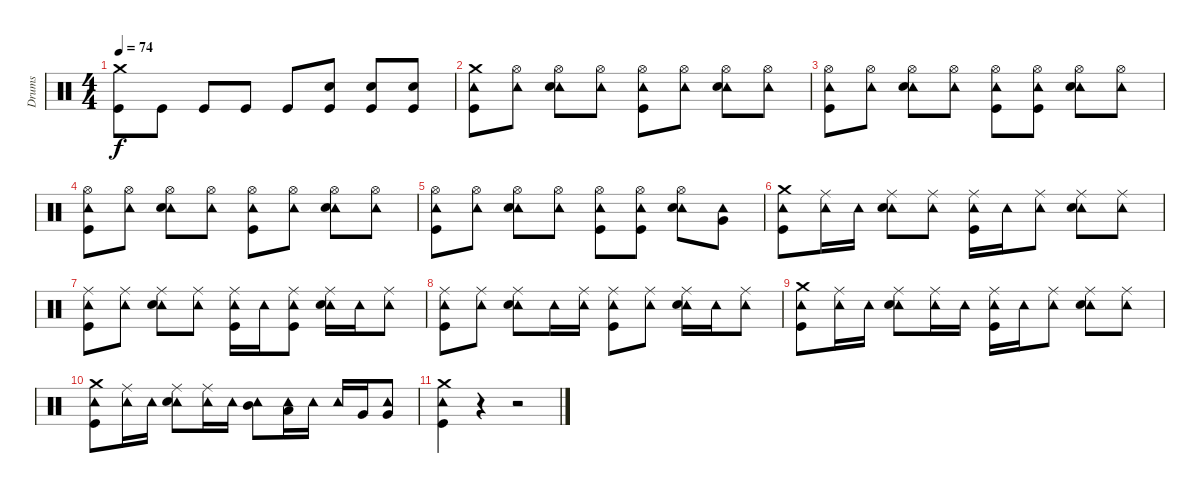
\track ("Drums" "Drums") {instrument percussion}
\staff {score}
\articulation defaults
\ts (4 4)
\tempo 74
\clef neutral
\ks c
("Crash medium (hit)" "Kick (hit)").8{dy f} "Kick (hit)".8 "Kick (hit)".8 "Kick (hit)".8 "Kick (hit)".8 ("Snare (hit) 2" "Kick (hit)").8 ("Snare (hit) 2" "Kick (hit)").8 ("Snare (hit) 2" "Kick (hit)").8 |
("Tambourine (hit)" "Crash medium (hit)" "Kick (hit)").8 ("Tambourine (hit)" "Hi-Hat (open)").8 ("Tambourine (hit)" "Hi-Hat (open)" "Snare (hit) 2").8 ("Tambourine (hit)" "Hi-Hat (open)").8 ("Tambourine (hit)" "Hi-Hat (open)" "Kick (hit)").8 ("Tambourine (hit)" "Hi-Hat (open)").8 ("Tambourine (hit)" "Hi-Hat (open)" "Snare (hit) 2").8 ("Tambourine (hit)" "Hi-Hat (open)").8 |
("Tambourine (hit)" "Hi-Hat (open)" "Kick (hit)").8 ("Tambourine (hit)" "Hi-Hat (open)").8 ("Tambourine (hit)" "Hi-Hat (open)" "Snare (hit) 2").8 ("Tambourine (hit)" "Hi-Hat (open)").8 ("Tambourine (hit)" "Hi-Hat (open)" "Kick (hit)").8 ("Tambourine (hit)" "Hi-Hat (open)" "Kick (hit)").8 ("Tambourine (hit)" "Hi-Hat (open)" "Snare (hit) 2").8 ("Tambourine (hit)" "Hi-Hat (open)").8 |
("Tambourine (hit)" "Hi-Hat (open)" "Kick (hit)").8 ("Tambourine (hit)" "Hi-Hat (open)").8 ("Tambourine (hit)" "Hi-Hat (open)" "Snare (hit) 2").8 ("Tambourine (hit)" "Hi-Hat (open)").8 ("Tambourine (hit)" "Hi-Hat (open)" "Kick (hit)").8 ("Tambourine (hit)" "Hi-Hat (open)").8 ("Tambourine (hit)" "Hi-Hat (open)" "Snare (hit) 2").8 ("Tambourine (hit)" "Hi-Hat (open)").8 |
("Tambourine (hit)" "Hi-Hat (open)" "Kick (hit)").8 ("Tambourine (hit)" "Hi-Hat (open)").8 ("Tambourine (hit)" "Hi-Hat (open)" "Snare (hit) 2").8 ("Tambourine (hit)" "Hi-Hat (open)").8 ("Tambourine (hit)" "Hi-Hat (open)" "Kick (hit)").8 ("Tambourine (hit)" "Hi-Hat (open)" "Kick (hit)").8 ("Tambourine (hit)" "Hi-Hat (open)" "Snare (hit) 2").8 ("Tambourine (hit)" "Very Low Tom (hit)").8 |
("Tambourine (hit)" "Crash medium (hit)" "Kick (hit)").8 ("Tambourine (hit)" "Ride (middle)").16 "Tambourine (hit)".16 ("Tambourine (hit)" "Ride (middle)" "Snare (hit) 2").8 ("Tambourine (hit)" "Ride (middle)").8 ("Tambourine (hit)" "Ride (middle)" "Kick (hit)").16 "Tambourine (hit)".16 ("Tambourine (hit)" "Ride (middle)").8 ("Tambourine (hit)" "Ride (middle)" "Snare (hit) 2").8 ("Tambourine (hit)" "Ride (middle)").8 |
("Tambourine (hit)" "Ride (middle)" "Kick (hit)").8 ("Tambourine (hit)" "Ride (middle)").8 ("Tambourine (hit)" "Ride (middle)" "Snare (hit) 2").8 ("Tambourine (hit)" "Ride (middle)").8 ("Tambourine (hit)" "Ride (middle)" "Kick (hit)").16 "Tambourine (hit)".16 ("Tambourine (hit)" "Ride (middle)" "Kick (hit)").8 ("Tambourine (hit)" "Ride (middle)" "Snare (hit) 2").16 "Tambourine (hit)".16 ("Tambourine (hit)" "Ride (middle)").8 |
("Tambourine (hit)" "Ride (middle)" "Kick (hit)").8 ("Tambourine (hit)" "Ride (middle)").8 ("Tambourine (hit)" "Ride (middle)" "Snare (hit) 2").8 "Tambourine (hit)".16 ("Tambourine (hit)" "Ride (middle)").16 ("Tambourine (hit)" "Ride (middle)" "Kick (hit)").8 ("Tambourine (hit)" "Ride (middle)").8 ("Tambourine (hit)" "Ride (middle)" "Snare (hit) 2").16 "Tambourine (hit)".16 ("Tambourine (hit)" "Ride (middle)").8 |
("Tambourine (hit)" "Crash medium (hit)" "Kick (hit)").8 ("Tambourine (hit)" "Ride (middle)").16 "Tambourine (hit)".16 ("Tambourine (hit)" "Ride (middle)" "Snare (hit) 2").8 ("Tambourine (hit)" "Ride (middle)").16 "Tambourine (hit)".16 ("Tambourine (hit)" "Ride (middle)" "Kick (hit)").16 "Tambourine (hit)".16 ("Tambourine (hit)" "Ride (middle)").8 ("Tambourine (hit)" "Ride (middle)" "Snare (hit) 2").8 ("Tambourine (hit)" "Ride (middle)").8 |
("Tambourine (hit)" "Crash medium (hit)" "Kick (hit)").8 ("Tambourine (hit)" "Ride (middle)").16 "Tambourine (hit)".16 ("Tambourine (hit)" "Ride (middle)" "Snare (hit) 2").8 ("Tambourine (hit)" "Ride (middle)").16 "Tambourine (hit)".16 ("Tambourine (hit)" "Mid Tom (hit)").8 ("Tambourine (hit)" "Low Tom (hit)").16 "Tambourine (hit)".16 "Tambourine (hit)".16 "Very Low Tom (hit)".16 ("Tambourine (hit)" "Very Low Tom (hit)").8 |
("Tambourine (hit)" "Crash medium (hit)" "Kick (hit)").4 r.4 r.2
